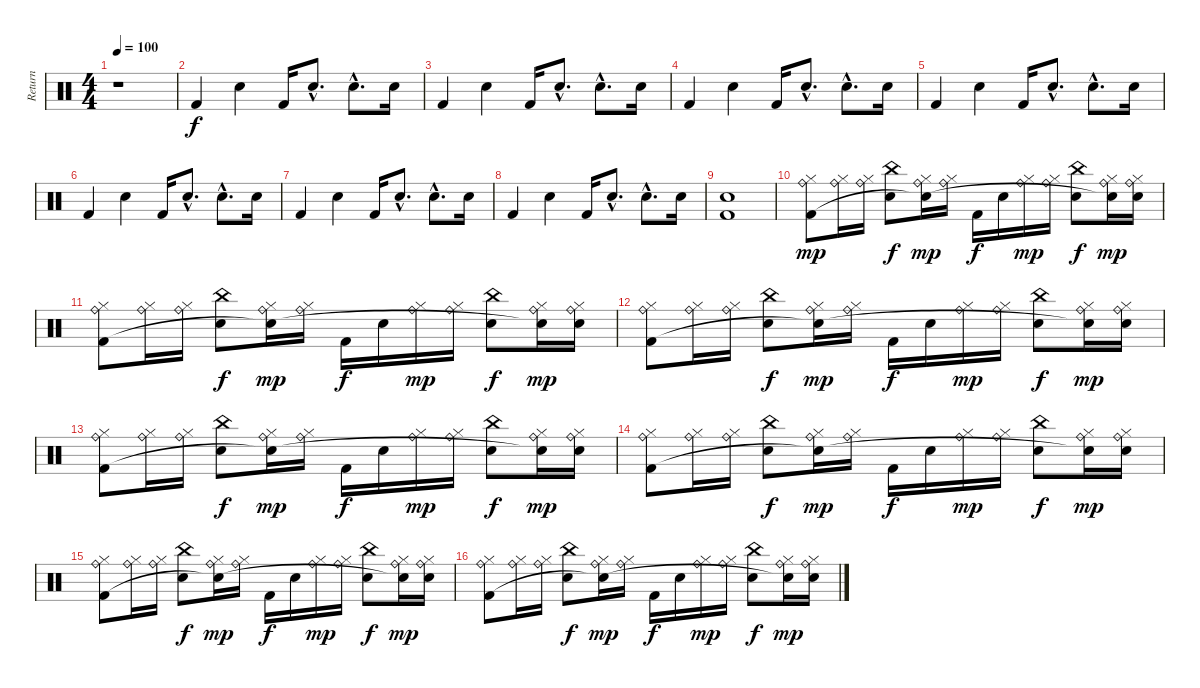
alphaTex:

\track ("    Return" "    Return") {instrument percussion}
\staff {score}
\articulation defaults
\ts (4 4)
\tempo 100
\clef neutral
\ks c
r.1{dy f} |
"Kick (hit) 2".4 "Electric Snare (hit)".4 "Kick (hit) 2".16 "Snare (hit) 2"{hac}.8{d} "Electric Snare (hit)"{hac}.8{d} "Snare (hit) 2".16 |
"Kick (hit) 2".4 "Electric Snare (hit)".4 "Kick (hit) 2".16 "Snare (hit) 2"{hac}.8{d} "Electric Snare (hit)"{hac}.8{d} "Snare (hit) 2".16 |
"Kick (hit) 2".4 "Electric Snare (hit)".4 "Kick (hit) 2".16 "Snare (hit) 2"{hac}.8{d} "Electric Snare (hit)"{hac}.8{d} "Snare (hit) 2".16 |
"Kick (hit) 2".4 "Electric Snare (hit)".4 "Kick (hit) 2".16 "Snare (hit) 2"{hac}.8{d} "Electric Snare (hit)"{hac}.8{d} "Snare (hit) 2".16 |
"Kick (hit) 2".4 "Electric Snare (hit)".4 "Kick (hit) 2".16 "Snare (hit) 2"{hac}.8{d} "Electric Snare (hit)"{hac}.8{d} "Snare (hit) 2".16 |
"Kick (hit) 2".4 "Electric Snare (hit)".4 "Kick (hit) 2".16 "Snare (hit) 2"{hac}.8{d} "Electric Snare (hit)"{hac}.8{d} "Snare (hit) 2".16 |
"Kick (hit) 2".4 "Electric Snare (hit)".4 "Kick (hit) 2".16 "Snare (hit) 2"{hac}.8{d} "Electric Snare (hit)"{hac}.8{d} "Snare (hit) 2".16 |
("Snare (hit) 2" "Kick (hit) 2").1 |
("Hi-Hat (closed)" "Ride (bell)" "Kick (hit) 2").8{dy mp} ("Hi-Hat (closed)" "Ride (bell)").16 ("Hi-Hat (closed)" "Ride (bell)").16 ("Electric Snare (hit)" "China (hit)").8{dy f} ("Hi-Hat (closed)" "Ride (bell)" "Snare (hit)"{t}).16{dy mp} ("Hi-Hat (closed)" "Ride (bell)").16 "Kick (hit) 2".16{dy f} "Snare (hit) 2".16 ("Hi-Hat (closed)" "Ride (bell)").16{dy mp} ("Hi-Hat (closed)" "Ride (bell)").16 ("Electric Snare (hit)" "China (hit)").8{dy f} ("Hi-Hat (closed)" "Ride (bell)" "Snare (hit)"{t}).16{dy mp} ("Hi-Hat (closed)" "Ride (bell)" "Snare (hit) 2").16 |
("Hi-Hat (closed)" "Ride (bell)" "Kick (hit) 2").8 ("Hi-Hat (closed)" "Ride (bell)").16 ("Hi-Hat (closed)" "Ride (bell)").16 ("Electric Snare (hit)" "China (hit)").8{dy f} ("Hi-Hat (closed)" "Ride (bell)" "Snare (hit)"{t}).16{dy mp} ("Hi-Hat (closed)" "Ride (bell)").16 "Kick (hit) 2".16{dy f} "Snare (hit) 2".16 ("Hi-Hat (closed)" "Ride (bell)").16{dy mp} ("Hi-Hat (closed)" "Ride (bell)").16 ("Electric Snare (hit)" "China (hit)").8{dy f} ("Hi-Hat (closed)" "Ride (bell)" "Snare (hit)"{t}).16{dy mp} ("Hi-Hat (closed)" "Ride (bell)" "Snare (hit) 2").16 |
("Hi-Hat (closed)" "Ride (bell)" "Kick (hit) 2").8 ("Hi-Hat (closed)" "Ride (bell)").16 ("Hi-Hat (closed)" "Ride (bell)").16 ("Electric Snare (hit)" "China (hit)").8{dy f} ("Hi-Hat (closed)" "Ride (bell)" "Snare (hit)"{t}).16{dy mp} ("Hi-Hat (closed)" "Ride (bell)").16 "Kick (hit) 2".16{dy f} "Snare (hit) 2".16 ("Hi-Hat (closed)" "Ride (bell)").16{dy mp} ("Hi-Hat (closed)" "Ride (bell)").16 ("Electric Snare (hit)" "China (hit)").8{dy f} ("Hi-Hat (closed)" "Ride (bell)" "Snare (hit)"{t}).16{dy mp} ("Hi-Hat (closed)" "Ride (bell)" "Snare (hit) 2").16 |
("Hi-Hat (closed)" "Ride (bell)" "Kick (hit) 2").8 ("Hi-Hat (closed)" "Ride (bell)").16 ("Hi-Hat (closed)" "Ride (bell)").16 ("Electric Snare (hit)" "China (hit)").8{dy f} ("Hi-Hat (closed)" "Ride (bell)" "Snare (hit)"{t}).16{dy mp} ("Hi-Hat (closed)" "Ride (bell)").16 "Kick (hit) 2".16{dy f} "Snare (hit) 2".16 ("Hi-Hat (closed)" "Ride (bell)").16{dy mp} ("Hi-Hat (closed)" "Ride (bell)").16 ("Electric Snare (hit)" "China (hit)").8{dy f} ("Hi-Hat (closed)" "Ride (bell)" "Snare (hit)"{t}).16{dy mp} ("Hi-Hat (closed)" "Ride (bell)" "Snare (hit) 2").16 |
("Hi-Hat (closed)" "Ride (bell)" "Kick (hit) 2").8 ("Hi-Hat (closed)" "Ride (bell)").16 ("Hi-Hat (closed)" "Ride (bell)").16 ("Electric Snare (hit)" "China (hit)").8{dy f} ("Hi-Hat (closed)" "Ride (bell)" "Snare (hit)"{t}).16{dy mp} ("Hi-Hat (closed)" "Ride (bell)").16 "Kick (hit) 2".16{dy f} "Snare (hit) 2".16 ("Hi-Hat (closed)" "Ride (bell)").16{dy mp} ("Hi-Hat (closed)" "Ride (bell)").16 ("Electric Snare (hit)" "China (hit)").8{dy f} ("Hi-Hat (closed)" "Ride (bell)" "Snare (hit)"{t}).16{dy mp} ("Hi-Hat (closed)" "Ride (bell)" "Snare (hit) 2").16 |
("Hi-Hat (closed)" "Ride (bell)" "Kick (hit) 2").8 ("Hi-Hat (closed)" "Ride (bell)").16 ("Hi-Hat (closed)" "Ride (bell)").16 ("Electric Snare (hit)" "China (hit)").8{dy f} ("Hi-Hat (closed)" "Ride (bell)" "Snare (hit)"{t}).16{dy mp} ("Hi-Hat (closed)" "Ride (bell)").16 "Kick (hit) 2".16{dy f} "Snare (hit) 2".16 ("Hi-Hat (closed)" "Ride (bell)").16{dy mp} ("Hi-Hat (closed)" "Ride (bell)").16 ("Electric Snare (hit)" "China (hit)").8{dy f} ("Hi-Hat (closed)" "Ride (bell)" "Snare (hit)"{t}).16{dy mp} ("Hi-Hat (closed)" "Ride (bell)" "Snare (hit) 2").16 |
("Hi-Hat (closed)" "Ride (bell)" "Kick (hit) 2").8 ("Hi-Hat (closed)" "Ride (bell)").16 ("Hi-Hat (closed)" "Ride (bell)").16 ("Electric Snare (hit)" "China (hit)").8{dy f} ("Hi-Hat (closed)" "Ride (bell)" "Snare (hit)"{t}).16{dy mp} ("Hi-Hat (closed)" "Ride (bell)").16 "Kick (hit) 2".16{dy f} "Snare (hit) 2".16 ("Hi-Hat (closed)" "Ride (bell)").16{dy mp} ("Hi-Hat (closed)" "Ride (bell)").16 ("Electric Snare (hit)" "China (hit)").8{dy f} ("Hi-Hat (closed)" "Ride (bell)" "Snare (hit)"{t}).16{dy mp} ("Hi-Hat (closed)" "Ride (bell)" "Snare (hit) 2").16
